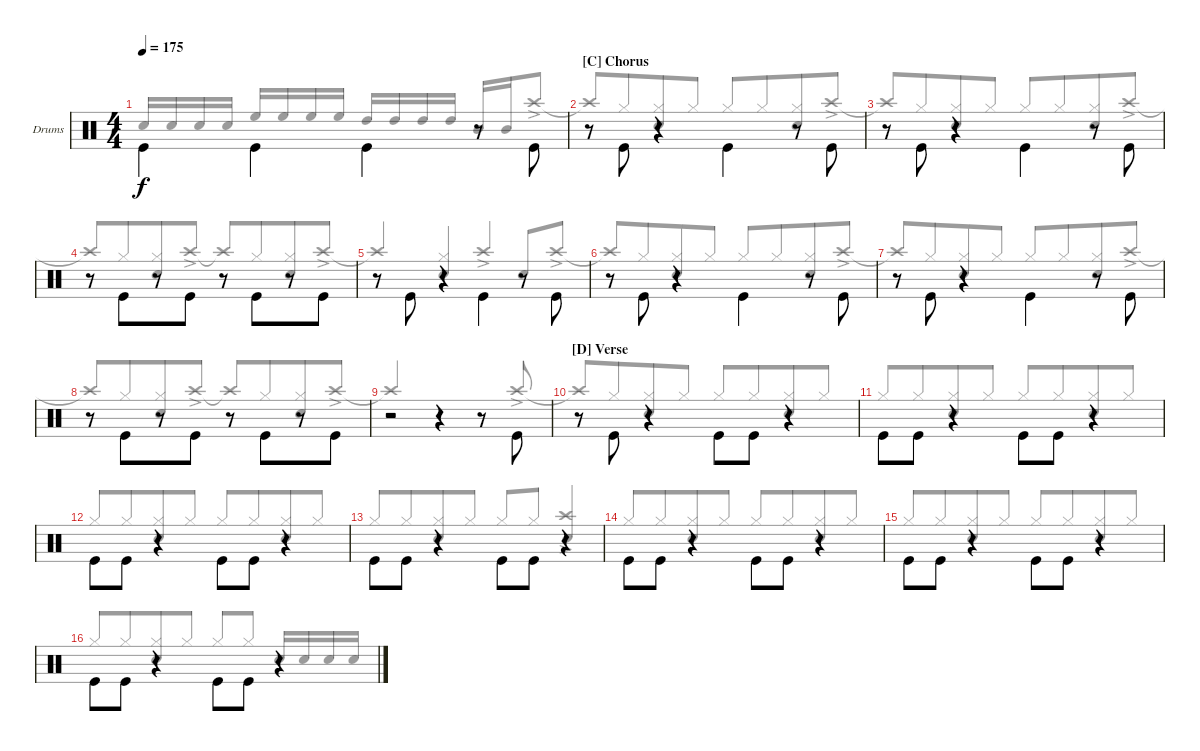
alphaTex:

\defaultSystemsLayout 4
\bracketExtendMode groupsimilarinstruments
\firstSystemTrackNameOrientation horizontal
\otherSystemsTrackNameOrientation horizontal
\track ("Drum" "Drums") {instrument percussion}
\staff {score}
\articulation defaults
\voice
\ts (4 4)
\tempo 175
\clef neutral
\scale
1.02648
\ks c "Kick (hit)".4{dy f beam invert} "Kick (hit)".4{beam invert} "Kick (hit)".4{beam invert}
r.8 "Kick (hit)".8{beam invert} |
\section ("C" "Chorus")
\scale
0.973518 r.8 "Kick (hit)".8{beam invert} r.4 "Kick (hit)".4{beam invert} r.8 "Kick (hit)".8{beam invert} |
\scale
1.05675 r.8 "Kick (hit)".8{beam invert} r.4 "Kick (hit)".4{beam invert} r.8 "Kick (hit)".8{beam invert} |
\scale
0.943253 r.8 "Kick (hit)".8{beam invert beam merge} r.8{beam merge} "Kick (hit)".8 r.8 "Kick (hit)".8{beam invert beam merge} r.8{beam merge} "Kick (hit)".8 |
\scale
1.02648 r.8 "Kick (hit)".8{beam invert} r.4 "Kick (hit)".4{beam invert} r.8 "Kick (hit)".8{beam invert} |
\scale
0.973518 r.8 "Kick (hit)".8{beam invert} r.4 "Kick (hit)".4{beam invert} r.8 "Kick (hit)".8{beam invert} |
\scale
1.02648 r.8 "Kick (hit)".8{beam invert} r.4 "Kick (hit)".4{beam invert} r.8 "Kick (hit)".8{beam invert} |
\scale
0.973518 r.8 "Kick (hit)".8{beam invert beam merge} r.8{beam merge} "Kick (hit)".8 r.8 "Kick (hit)".8{beam invert beam merge} r.8{beam merge} "Kick (hit)".8 |
\scale
1.02648 r.2 r.4 r.8 "Kick (hit)".8{beam invert} |
\section ("D" "Verse")
\scale
0.973518 r.8{beam invert} "Kick (hit)".8{beam invert} r.4 "Kick (hit)".8{beam invert} "Kick (hit)".8 r.4 |
\scale
1.02648 "Kick (hit)".8{beam invert} "Kick (hit)".8 r.4 "Kick (hit)".8{beam invert} "Kick (hit)".8 r.4 |
\scale
0.973518 "Kick (hit)".8{beam invert} "Kick (hit)".8 r.4 "Kick (hit)".8{beam invert} "Kick (hit)".8 r.4 |
\scale
1.02648 "Kick (hit)".8{beam invert} "Kick (hit)".8 r.4 "Kick (hit)".8{beam invert} "Kick (hit)".8 r.4 |
\scale
0.973518 "Kick (hit)".8{beam invert} "Kick (hit)".8 r.4 "Kick (hit)".8{beam invert} "Kick (hit)".8 r.4 |
\scale
1.02648 "Kick (hit)".8{beam invert} "Kick (hit)".8 r.4 "Kick (hit)".8{beam invert} "Kick (hit)".8 r.4 |
\scale
0.973518 "Kick (hit)".8{beam invert} "Kick (hit)".8 r.4 "Kick (hit)".8{beam invert} "Kick (hit)".8 r.4
\voice
\clef neutral
\ottava regular
\simile none
\scale
1.02648
\ks c "Snare (hit) 2".16{dy f beam invert} "Snare (hit) 2".16 "Snare (hit) 2".16 "Snare (hit) 2".16 "High Floor Tom (hit)".16{beam invert} "High Floor Tom (hit)".16 "High Floor Tom (hit)".16 "High Floor Tom (hit)".16 "High Tom (hit)".16{beam invert} "High Tom (hit)".16 "High Tom (hit)".16 "High Tom (hit)".16 "Mid Tom (hit)".16{beam invert} "Mid Tom (hit)".16 "Crash high (hit)"{ac}.8
|
\scale
0.973518 "Crash high (hit)"{t}.8{beam invert beam merge} "Hi-Hat (closed)".8{beam merge} ("Hi-Hat (closed)" "Snare (hit) 2").8{beam merge} "Hi-Hat (closed)".8 "Hi-Hat (closed)".8{beam invert beam merge} "Hi-Hat (closed)".8{beam merge} ("Hi-Hat (closed)" "Snare (hit) 2").8{beam merge} "Crash high (hit)"{ac}.8 |
\scale
1.05675 "Crash high (hit)"{t}.8{beam invert beam merge} "Hi-Hat (closed)".8{beam merge} ("Hi-Hat (closed)" "Snare (hit) 2").8{beam merge} "Hi-Hat (closed)".8 "Hi-Hat (closed)".8{beam invert beam merge} "Hi-Hat (closed)".8{beam merge} ("Hi-Hat (closed)" "Snare (hit) 2").8{beam merge} "Crash high (hit)"{ac}.8 |
\scale
0.943253 "Crash high (hit)"{t}.8{beam invert beam merge} "Hi-Hat (closed)".8{beam merge} ("Hi-Hat (closed)" "Snare (hit) 2").8{beam merge} "Crash high (hit)"{ac}.8 "Crash high (hit)"{t}.8{beam invert beam merge} "Hi-Hat (closed)".8{beam merge} ("Hi-Hat (closed)" "Snare (hit) 2").8{beam merge} "Crash high (hit)"{ac}.8 |
\scale
1.02648 "Crash high (hit)"{t}.4{beam invert} ("Hi-Hat (closed)" "Snare (hit) 2").4{beam invert beam merge} "Crash high (hit)"{ac}.4{beam invert} "Snare (hit) 2".8{beam invert} "Crash high (hit)"{ac}.8 |
\scale
0.973518 "Crash high (hit)"{t}.8{beam invert beam merge} "Hi-Hat (closed)".8{beam merge} ("Hi-Hat (closed)" "Snare (hit) 2").8{beam merge} "Hi-Hat (closed)".8 "Hi-Hat (closed)".8{beam invert beam merge} "Hi-Hat (closed)".8{beam merge} ("Hi-Hat (closed)" "Snare (hit) 2").8{beam merge} "Crash high (hit)"{ac}.8 |
\scale
1.02648 "Crash high (hit)"{t}.8{beam invert beam merge} "Hi-Hat (closed)".8{beam merge} ("Hi-Hat (closed)" "Snare (hit) 2").8{beam merge} "Hi-Hat (closed)".8 "Hi-Hat (closed)".8{beam invert beam merge} "Hi-Hat (closed)".8{beam merge} ("Hi-Hat (closed)" "Snare (hit) 2").8{beam merge} "Crash high (hit)"{ac}.8 |
\scale
0.973518 "Crash high (hit)"{t}.8{beam invert beam merge} "Hi-Hat (closed)".8{beam merge} ("Hi-Hat (closed)" "Snare (hit) 2").8{beam merge} "Crash high (hit)"{ac}.8 "Crash high (hit)"{t}.8{beam invert beam merge} "Hi-Hat (closed)".8{beam merge} ("Hi-Hat (closed)" "Snare (hit) 2").8{beam merge} "Crash high (hit)"{ac}.8 |
\scale
1.02648 "Crash high (hit)"{t}.2{beam invert} r.4 r.8 "Crash high (hit)"{ac}.8{beam invert} |
\scale
0.973518 "Crash high (hit)"{t}.8{beam invert beam merge} "Hi-Hat (closed)".8{beam merge} ("Hi-Hat (closed)" "Snare (hit) 2").8{beam merge} "Hi-Hat (closed)".8 "Hi-Hat (closed)".8{beam invert beam merge} "Hi-Hat (closed)".8{beam merge} ("Hi-Hat (closed)" "Snare (hit) 2").8{beam merge} "Hi-Hat (closed)".8 |
\scale
1.02648 "Hi-Hat (closed)".8{beam invert beam merge} "Hi-Hat (closed)".8{beam merge} ("Hi-Hat (closed)" "Snare (hit) 2").8{beam merge} "Hi-Hat (closed)".8 "Hi-Hat (closed)".8{beam invert beam merge} "Hi-Hat (closed)".8{beam merge} ("Hi-Hat (closed)" "Snare (hit) 2").8{beam merge} "Hi-Hat (closed)".8 |
\scale
0.973518 "Hi-Hat (closed)".8{beam invert beam merge} "Hi-Hat (closed)".8{beam merge} ("Hi-Hat (closed)" "Snare (hit) 2").8{beam merge} "Hi-Hat (closed)".8 "Hi-Hat (closed)".8{beam invert beam merge} "Hi-Hat (closed)".8{beam merge} ("Hi-Hat (closed)" "Snare (hit) 2").8{beam merge} "Hi-Hat (closed)".8 |
\scale
1.02648 "Hi-Hat (closed)".8{beam invert beam merge} "Hi-Hat (closed)".8{beam merge} ("Hi-Hat (closed)" "Snare (hit) 2").8{beam merge} "Hi-Hat (closed)".8 "Hi-Hat (closed)".8{beam invert beam merge} "Hi-Hat (closed)".8{beam merge} ("Crash high (hit)"{ac} "Snare (hit) 2").4{beam invert} |
\scale
0.973518 "Hi-Hat (closed)".8{beam invert beam merge} "Hi-Hat (closed)".8{beam merge} ("Hi-Hat (closed)" "Snare (hit) 2").8{beam merge} "Hi-Hat (closed)".8 "Hi-Hat (closed)".8{beam invert beam merge} "Hi-Hat (closed)".8{beam merge} ("Hi-Hat (closed)" "Snare (hit) 2").8{beam merge} "Hi-Hat (closed)".8 |
\scale
1.02648 "Hi-Hat (closed)".8{beam invert beam merge} "Hi-Hat (closed)".8{beam merge} ("Hi-Hat (closed)" "Snare (hit) 2").8{beam merge} "Hi-Hat (closed)".8 "Hi-Hat (closed)".8{beam invert beam merge} "Hi-Hat (closed)".8{beam merge} ("Hi-Hat (closed)" "Snare (hit) 2").8{beam merge} "Hi-Hat (closed)".8 |
\scale
0.973518 "Hi-Hat (closed)".8{beam invert beam merge} "Hi-Hat (closed)".8{beam merge} ("Hi-Hat (closed)" "Snare (hit) 2").8{beam merge} "Hi-Hat (closed)".8 "Hi-Hat (closed)".8{beam invert beam merge} "Hi-Hat (closed)".8{beam split} "Snare (hit) 2".16{beam invert beam merge} "Snare (hit) 2".16{beam merge} "Snare (hit) 2".16{beam merge} "Snare (hit) 2".16{beam split}
